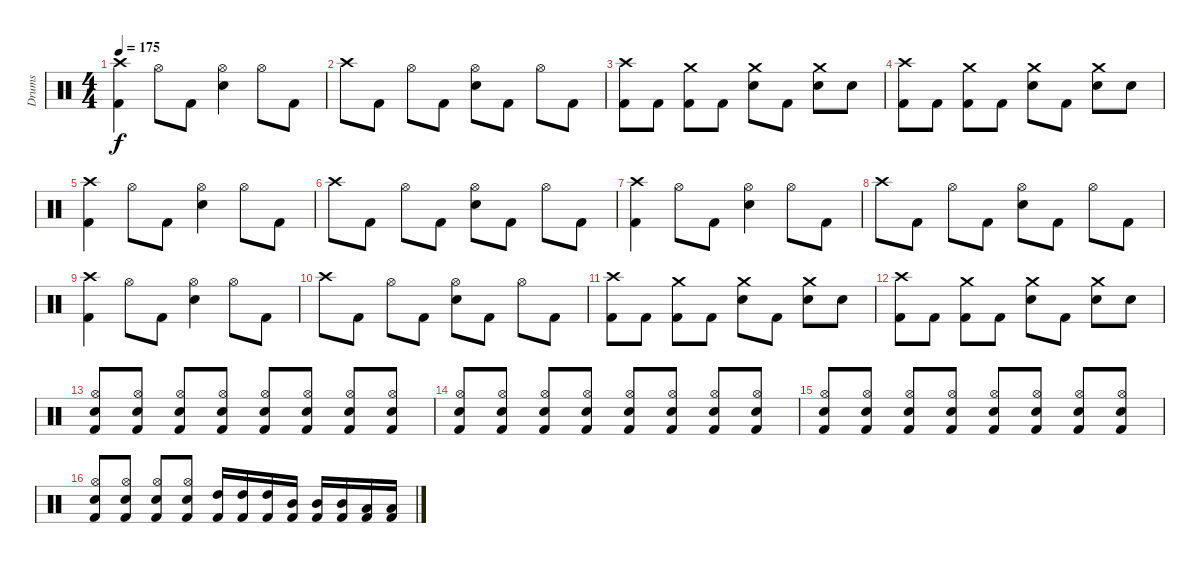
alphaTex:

\track ("Drums" "Drums") {instrument percussion}
\staff {score}
\articulation defaults
\ts (4 4)
\tempo 175
\clef neutral
\ks c
("Crash high (hit)" "Kick (hit) 2").4{dy f} "Hi-Hat (open)".8 "Kick (hit) 2".8 ("Hi-Hat (open)" "Snare (hit) 2").4 "Hi-Hat (open)".8 "Kick (hit) 2".8 |
"Crash high (hit)".8 "Kick (hit) 2".8 "Hi-Hat (open)".8 "Kick (hit) 2".8 ("Hi-Hat (open)" "Snare (hit) 2").8 "Kick (hit) 2".8 "Hi-Hat (open)".8 "Kick (hit) 2".8 |
("Crash high (hit)" "Kick (hit) 2").8 "Kick (hit) 2".8 ("Crash medium (hit)" "Kick (hit) 2").8 "Kick (hit) 2".8 ("Crash medium (hit)" "Snare (hit) 2").8 "Kick (hit) 2".8 ("Crash medium (hit)" "Snare (hit) 2").8 "Snare (hit) 2".8 |
("Crash high (hit)" "Kick (hit) 2").8 "Kick (hit) 2".8 ("Crash medium (hit)" "Kick (hit) 2").8 "Kick (hit) 2".8 ("Crash medium (hit)" "Snare (hit) 2").8 "Kick (hit) 2".8 ("Crash medium (hit)" "Snare (hit) 2").8 "Snare (hit) 2".8 |
("Crash high (hit)" "Kick (hit) 2").4 "Hi-Hat (open)".8 "Kick (hit) 2".8 ("Hi-Hat (open)" "Snare (hit) 2").4 "Hi-Hat (open)".8 "Kick (hit) 2".8 |
"Crash high (hit)".8 "Kick (hit) 2".8 "Hi-Hat (open)".8 "Kick (hit) 2".8 ("Hi-Hat (open)" "Snare (hit) 2").8 "Kick (hit) 2".8 "Hi-Hat (open)".8 "Kick (hit) 2".8 |
("Crash high (hit)" "Kick (hit) 2").4 "Hi-Hat (open)".8 "Kick (hit) 2".8 ("Hi-Hat (open)" "Snare (hit) 2").4 "Hi-Hat (open)".8 "Kick (hit) 2".8 |
"Crash high (hit)".8 "Kick (hit) 2".8 "Hi-Hat (open)".8 "Kick (hit) 2".8 ("Hi-Hat (open)" "Snare (hit) 2").8 "Kick (hit) 2".8 "Hi-Hat (open)".8 "Kick (hit) 2".8 |
("Crash high (hit)" "Kick (hit) 2").4 "Hi-Hat (open)".8 "Kick (hit) 2".8 ("Hi-Hat (open)" "Snare (hit) 2").4 "Hi-Hat (open)".8 "Kick (hit) 2".8 |
"Crash high (hit)".8 "Kick (hit) 2".8 "Hi-Hat (open)".8 "Kick (hit) 2".8 ("Hi-Hat (open)" "Snare (hit) 2").8 "Kick (hit) 2".8 "Hi-Hat (open)".8 "Kick (hit) 2".8 |
("Crash high (hit)" "Kick (hit) 2").8 "Kick (hit) 2".8 ("Crash medium (hit)" "Kick (hit) 2").8 "Kick (hit) 2".8 ("Crash medium (hit)" "Snare (hit) 2").8 "Kick (hit) 2".8 ("Crash medium (hit)" "Snare (hit) 2").8 "Snare (hit) 2".8 |
("Crash high (hit)" "Kick (hit) 2").8 "Kick (hit) 2".8 ("Crash medium (hit)" "Kick (hit) 2").8 "Kick (hit) 2".8 ("Crash medium (hit)" "Snare (hit) 2").8 "Kick (hit) 2".8 ("Crash medium (hit)" "Snare (hit) 2").8 "Snare (hit) 2".8 |
("Hi-Hat (open)" "Snare (hit) 2" "Kick (hit) 2").8 ("Hi-Hat (open)" "Snare (hit) 2" "Kick (hit) 2").8 ("Hi-Hat (open)" "Snare (hit) 2" "Kick (hit) 2").8 ("Hi-Hat (open)" "Snare (hit) 2" "Kick (hit) 2").8 ("Hi-Hat (open)" "Snare (hit) 2" "Kick (hit) 2").8 ("Hi-Hat (open)" "Snare (hit) 2" "Kick (hit) 2").8 ("Hi-Hat (open)" "Snare (hit) 2" "Kick (hit) 2").8 ("Hi-Hat (open)" "Snare (hit) 2" "Kick (hit) 2").8 |
("Hi-Hat (open)" "Snare (hit) 2" "Kick (hit) 2").8 ("Hi-Hat (open)" "Snare (hit) 2" "Kick (hit) 2").8 ("Hi-Hat (open)" "Snare (hit) 2" "Kick (hit) 2").8 ("Hi-Hat (open)" "Snare (hit) 2" "Kick (hit) 2").8 ("Hi-Hat (open)" "Snare (hit) 2" "Kick (hit) 2").8 ("Hi-Hat (open)" "Snare (hit) 2" "Kick (hit) 2").8 ("Hi-Hat (open)" "Snare (hit) 2" "Kick (hit) 2").8 ("Hi-Hat (open)" "Snare (hit) 2" "Kick (hit) 2").8 |
("Hi-Hat (open)" "Snare (hit) 2" "Kick (hit) 2").8 ("Hi-Hat (open)" "Snare (hit) 2" "Kick (hit) 2").8 ("Hi-Hat (open)" "Snare (hit) 2" "Kick (hit) 2").8 ("Hi-Hat (open)" "Snare (hit) 2" "Kick (hit) 2").8 ("Hi-Hat (open)" "Snare (hit) 2" "Kick (hit) 2").8 ("Hi-Hat (open)" "Snare (hit) 2" "Kick (hit) 2").8 ("Hi-Hat (open)" "Snare (hit) 2" "Kick (hit) 2").8 ("Hi-Hat (open)" "Snare (hit) 2" "Kick (hit) 2").8 |
("Hi-Hat (open)" "Snare (hit) 2" "Kick (hit) 2").8 ("Hi-Hat (open)" "Snare (hit) 2" "Kick (hit) 2").8 ("Hi-Hat (open)" "Snare (hit) 2" "Kick (hit) 2").8 ("Hi-Hat (open)" "Snare (hit) 2" "Kick (hit) 2").8 ("High Tom (hit)" "Kick (hit) 2").16 ("High Tom (hit)" "Kick (hit) 2").16 ("High Tom (hit)" "Kick (hit) 2").16 ("Mid Tom (hit)" "Kick (hit) 2").16 ("Mid Tom (hit)" "Kick (hit) 2").16 ("Mid Tom (hit)" "Kick (hit) 2").16 ("Low Tom (hit)" "Kick (hit) 2").16 ("Low Tom (hit)" "Kick (hit) 2").16
